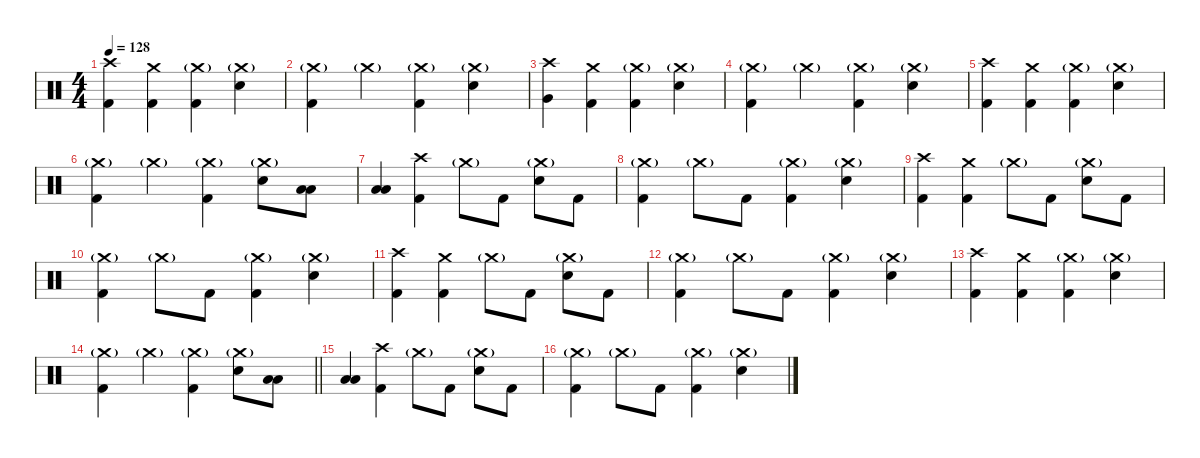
\defaultSystemsLayout 4
\hideDynamics
\bracketExtendMode nobrackets
\singleTrackTrackNamePolicy hidden
\multiTrackTrackNamePolicy hidden
\otherSystemsTrackNameOrientation horizontal
\track ("Gene Hoglan" "drm.") {instrument percussion}
\staff {score}
\articulation defaults
\ts (4 4)
\tempo 128
\clef neutral
\ks c
("Crash high (hit)" "Kick (hit) 2").4{dy f beam Down} ("Crash medium (hit)" "Kick (hit) 2").4{beam Down} ("Crash medium (hit)"{g} "Kick (hit) 2").4{beam Down} ("Crash medium (hit)"{g} "Snare (hit) 2").4{beam Down} |
("Crash medium (hit)"{g} "Kick (hit) 2").4{beam Down} "Crash medium (hit)"{g}.4{dy mf beam Down} ("Crash medium (hit)"{g} "Kick (hit) 2").4{dy f beam Down} ("Crash medium (hit)"{g} "Snare (hit) 2").4{beam Down} |
("Crash high (hit)" "Very Low Tom (hit)").4{beam Down} ("Crash medium (hit)" "Kick (hit) 2").4{beam Down} ("Crash medium (hit)"{g} "Kick (hit) 2").4{beam Down} ("Crash medium (hit)"{g} "Snare (hit) 2").4{beam Down} |
("Crash medium (hit)"{g} "Kick (hit) 2").4{beam Down} "Crash medium (hit)"{g}.4{dy mf beam Down} ("Crash medium (hit)"{g} "Kick (hit) 2").4{dy f beam Down} ("Crash medium (hit)"{g} "Snare (hit) 2").4{beam Down} |
("Crash high (hit)" "Kick (hit) 2").4{beam Down} ("Crash medium (hit)" "Kick (hit) 2").4{beam Down} ("Crash medium (hit)"{g} "Kick (hit) 2").4{beam Down} ("Crash medium (hit)"{g} "Snare (hit) 2").4{beam Down} |
("Crash medium (hit)"{g} "Kick (hit) 2").4{beam Down} "Crash medium (hit)"{g}.4{dy mf beam Down} ("Crash medium (hit)"{g} "Kick (hit) 2").4{dy f beam Down} ("Crash medium (hit)"{g} "Snare (hit) 2").8{beam Down} ("Low Tom (hit)" "Low Tom (hit)").8{dy fff beam Down} |
("Low Tom (hit)" "Low Tom (hit)").4{dy f beam Up} ("Crash high (hit)" "Kick (hit) 2").4{beam Down} "Crash medium (hit)"{g}.8{dy mf beam Down} "Kick (hit) 2".8{dy f beam Down} ("Crash medium (hit)"{g} "Snare (hit) 2").8{beam Down} "Kick (hit) 2".8{beam Down} |
("Crash medium (hit)"{g} "Kick (hit) 2").4{beam Down} "Crash medium (hit)"{g}.8{dy mf beam Down} "Kick (hit) 2".8{dy f beam Down} ("Crash medium (hit)"{g} "Kick (hit) 2").4{beam Down} ("Crash medium (hit)"{g} "Snare (hit) 2").4{beam Down} |
("Crash high (hit)" "Kick (hit) 2").4{beam Down} ("Crash medium (hit)" "Kick (hit) 2").4{beam Down} "Crash medium (hit)"{g}.8{dy mf beam Down} "Kick (hit) 2".8{dy f beam Down} ("Crash medium (hit)"{g} "Snare (hit) 2").8{beam Down} "Kick (hit) 2".8{beam Down} |
("Crash medium (hit)"{g} "Kick (hit) 2").4{beam Down} "Crash medium (hit)"{g}.8{dy mf beam Down} "Kick (hit) 2".8{dy f beam Down} ("Crash medium (hit)"{g} "Kick (hit) 2").4{beam Down} ("Crash medium (hit)"{g} "Snare (hit) 2").4{beam Down} |
("Crash high (hit)" "Kick (hit) 2").4{beam Down} ("Crash medium (hit)" "Kick (hit) 2").4{beam Down} "Crash medium (hit)"{g}.8{dy mf beam Down} "Kick (hit) 2".8{dy f beam Down} ("Crash medium (hit)"{g} "Snare (hit) 2").8{beam Down} "Kick (hit) 2".8{beam Down} |
("Crash medium (hit)"{g} "Kick (hit) 2").4{beam Down} "Crash medium (hit)"{g}.8{dy mf beam Down} "Kick (hit) 2".8{dy f beam Down} ("Crash medium (hit)"{g} "Kick (hit) 2").4{beam Down} ("Crash medium (hit)"{g} "Snare (hit) 2").4{beam Down} |
("Crash high (hit)" "Kick (hit) 2").4{beam Down} ("Crash medium (hit)" "Kick (hit) 2").4{beam Down} ("Crash medium (hit)"{g} "Kick (hit) 2").4{beam Down} ("Crash medium (hit)"{g} "Snare (hit) 2").4{beam Down} |
\barLineRight lightlight
("Crash medium (hit)"{g} "Kick (hit) 2").4{beam Down} "Crash medium (hit)"{g}.4{dy mf beam Down} ("Crash medium (hit)"{g} "Kick (hit) 2").4{dy f beam Down} ("Crash medium (hit)"{g} "Snare (hit) 2").8{beam Down} ("Low Tom (hit)" "Low Tom (hit)").8{dy fff beam Down} |
("Low Tom (hit)" "Low Tom (hit)").4{dy f beam Up} ("Crash high (hit)" "Kick (hit) 2").4{beam Down} "Crash medium (hit)"{g}.8{dy mf beam Down} "Kick (hit) 2".8{dy f beam Down} ("Crash medium (hit)"{g} "Snare (hit) 2").8{beam Down} "Kick (hit) 2".8{beam Down} |
("Crash medium (hit)"{g} "Kick (hit) 2").4{beam Down} "Crash medium (hit)"{g}.8{dy mf beam Down} "Kick (hit) 2".8{dy f beam Down} ("Crash medium (hit)"{g} "Kick (hit) 2").4{beam Down} ("Crash medium (hit)"{g} "Snare (hit) 2").4{beam Down}
